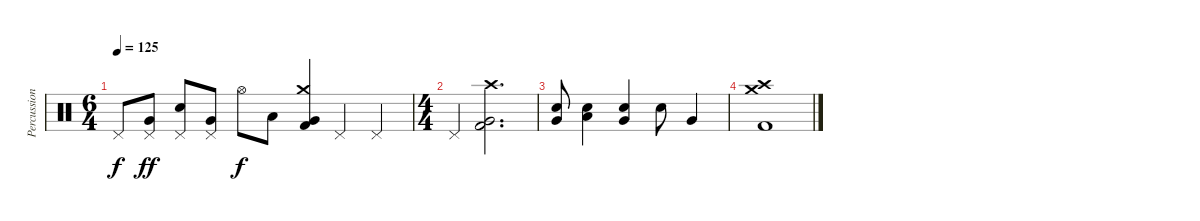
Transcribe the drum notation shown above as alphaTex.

\track ("Percussion" "Percussion") {instrument percussion}
\staff {score}
\articulation defaults
\ts (6 4)
\tempo 125
\clef neutral
\ks c "Pedal Hi-Hat (hit)".8{dy f}
("Pedal Hi-Hat (hit)" "Very Low Tom (hit)").8{dy ff} ("Pedal Hi-Hat (hit)" "Electric Snare (hit)").8 ("Pedal Hi-Hat (hit)" "Very Low Tom (hit)").8 "Hi-Hat (open)".8{dy f} "Low Floor Tom (hit)".8 ("Crash medium (hit)" "Very Low Tom (hit)" "Kick (hit) 2").4 "Pedal Hi-Hat (hit)".4 "Pedal Hi-Hat (hit)".4 |
\ts (4 4)
"Pedal Hi-Hat (hit)".4 ("Crash high (hit)" "Very Low Tom (hit)" "Kick (hit) 2").2{d} |
("Electric Snare (hit)" "Very Low Tom (hit)").8 ("Electric Snare (hit)" "Low Floor Tom (hit)").4 ("Electric Snare (hit)" "Very Low Tom (hit)").4 "Electric Snare (hit)".8 "Very Low Tom (hit)".4 |
("Crash medium (hit)" "Crash high (hit)" "Kick (hit) 2").1
